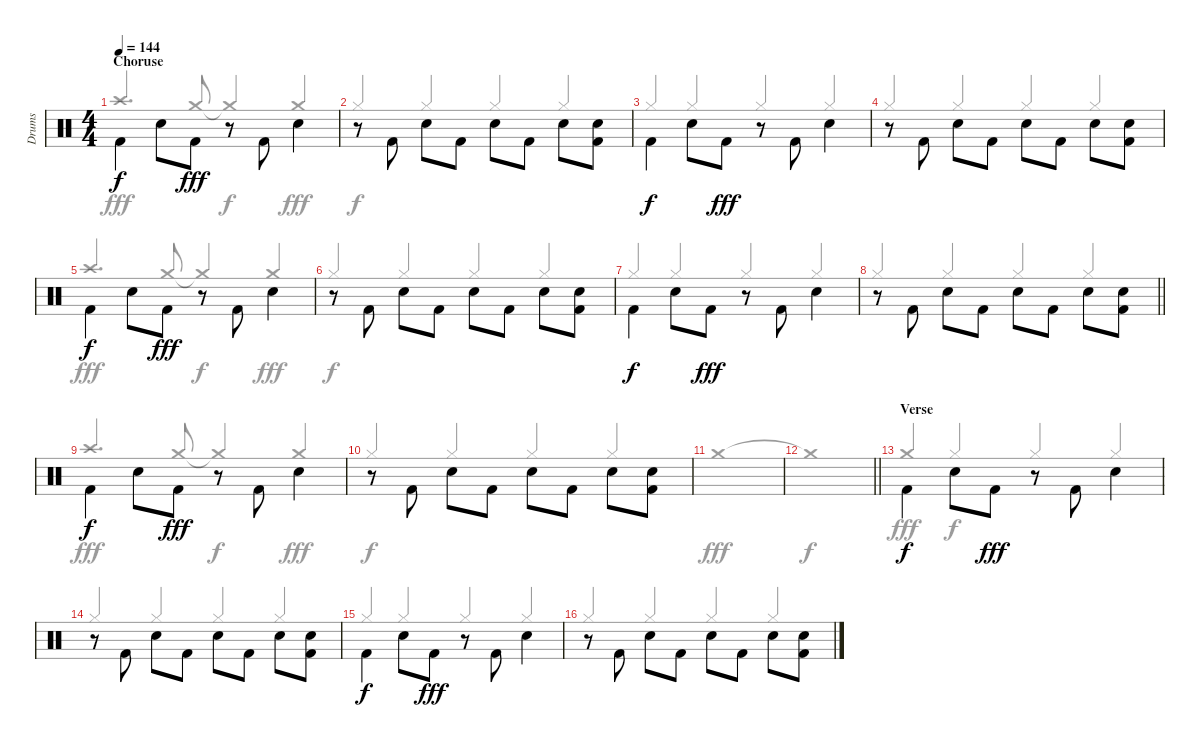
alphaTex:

\track ("Drums" "Drums") {instrument percussion}
\staff {score}
\articulation defaults
\voice
\ts (4 4)
\section ("" "Choruse")
\tempo 144
\clef neutral
\ks c "Kick (hit) 2".4{dy f beam Down} "Snare (hit) 2".8{beam Down} "Kick (hit) 2".8{dy fff beam Down}
r.8 "Kick (hit) 2".8{beam Down} "Snare (hit) 2".4{beam Down} |
r.8 "Kick (hit) 2".8{beam Down} "Snare (hit) 2".8{beam Down} "Kick (hit) 2".8{beam Down} "Snare (hit) 2".8{beam Down} "Kick (hit) 2".8{beam Down} "Snare (hit) 2".8{beam Down} ("Snare (hit) 2" "Kick (hit) 2").8{beam Down} |
"Kick (hit) 2".4{dy f beam Down} "Snare (hit) 2".8{beam Down} "Kick (hit) 2".8{dy fff beam Down} r.8 "Kick (hit) 2".8{beam Down} "Snare (hit) 2".4{beam Down} |
r.8 "Kick (hit) 2".8{beam Down} "Snare (hit) 2".8{beam Down} "Kick (hit) 2".8{beam Down} "Snare (hit) 2".8{beam Down} "Kick (hit) 2".8{beam Down} "Snare (hit) 2".8{beam Down} ("Snare (hit) 2" "Kick (hit) 2").8{beam Down} |
"Kick (hit) 2".4{dy f beam Down} "Snare (hit) 2".8{beam Down} "Kick (hit) 2".8{dy fff beam Down} r.8 "Kick (hit) 2".8{beam Down} "Snare (hit) 2".4{beam Down} |
r.8 "Kick (hit) 2".8{beam Down} "Snare (hit) 2".8{beam Down} "Kick (hit) 2".8{beam Down} "Snare (hit) 2".8{beam Down} "Kick (hit) 2".8{beam Down} "Snare (hit) 2".8{beam Down} ("Snare (hit) 2" "Kick (hit) 2").8{beam Down} |
"Kick (hit) 2".4{dy f beam Down} "Snare (hit) 2".8{beam Down} "Kick (hit) 2".8{dy fff beam Down} r.8 "Kick (hit) 2".8{beam Down} "Snare (hit) 2".4{beam Down} |
\barLineRight lightlight
r.8 "Kick (hit) 2".8{beam Down} "Snare (hit) 2".8{beam Down} "Kick (hit) 2".8{beam Down} "Snare (hit) 2".8{beam Down} "Kick (hit) 2".8{beam Down} "Snare (hit) 2".8{beam Down} ("Snare (hit) 2" "Kick (hit) 2").8{beam Down} |
"Kick (hit) 2".4{dy f beam Down} "Snare (hit) 2".8{beam Down} "Kick (hit) 2".8{dy fff beam Down} r.8 "Kick (hit) 2".8{beam Down} "Snare (hit) 2".4{beam Down} |
r.8 "Kick (hit) 2".8{beam Down} "Snare (hit) 2".8{beam Down} "Kick (hit) 2".8{beam Down} "Snare (hit) 2".8{beam Down} "Kick (hit) 2".8{beam Down} "Snare (hit) 2".8{beam Down} ("Snare (hit) 2" "Kick (hit) 2").8{beam Down} |
|
\barLineRight lightlight
|
\section ("" "Verse")
"Kick (hit) 2".4{dy f beam Down} "Snare (hit) 2".8{beam Down} "Kick (hit) 2".8{dy fff beam Down} r.8 "Kick (hit) 2".8{beam Down} "Snare (hit) 2".4{beam Down} |
r.8 "Kick (hit) 2".8{beam Down} "Snare (hit) 2".8{beam Down} "Kick (hit) 2".8{beam Down} "Snare (hit) 2".8{beam Down} "Kick (hit) 2".8{beam Down} "Snare (hit) 2".8{beam Down} ("Snare (hit) 2" "Kick (hit) 2").8{beam Down} |
"Kick (hit) 2".4{dy f beam Down} "Snare (hit) 2".8{beam Down} "Kick (hit) 2".8{dy fff beam Down} r.8 "Kick (hit) 2".8{beam Down} "Snare (hit) 2".4{beam Down} |
r.8 "Kick (hit) 2".8{beam Down} "Snare (hit) 2".8{beam Down} "Kick (hit) 2".8{beam Down} "Snare (hit) 2".8{beam Down} "Kick (hit) 2".8{beam Down} "Snare (hit) 2".8{beam Down} ("Snare (hit) 2" "Kick (hit) 2").8{beam Down}
\voice
\clef neutral
\ottava regular
\simile none
\ks c "Crash high (hit)".4{d dy fff beam Up} "Crash medium (hit)".8{beam Up} "Crash medium (hit)"{t}.4{dy f beam Up} "Crash medium (hit)".4{dy fff beam Up}
|
"Hi-Hat (closed)".4{dy f beam Up} "Hi-Hat (closed)".4{beam Up} "Hi-Hat (closed)".4{beam Up} "Hi-Hat (closed)".4{beam Up} |
"Hi-Hat (closed)".4{beam Up} "Hi-Hat (closed)".4{beam Up} "Hi-Hat (closed)".4{beam Up} "Hi-Hat (closed)".4{beam Up} |
"Hi-Hat (closed)".4{beam Up} "Hi-Hat (closed)".4{beam Up} "Hi-Hat (closed)".4{beam Up} "Hi-Hat (closed)".4{beam Up} |
"Crash high (hit)".4{d dy fff beam Up} "Crash medium (hit)".8{beam Up} "Crash medium (hit)"{t}.4{dy f beam Up} "Crash medium (hit)".4{dy fff beam Up} |
"Hi-Hat (closed)".4{dy f beam Up} "Hi-Hat (closed)".4{beam Up} "Hi-Hat (closed)".4{beam Up} "Hi-Hat (closed)".4{beam Up} |
"Hi-Hat (closed)".4{beam Up} "Hi-Hat (closed)".4{beam Up} "Hi-Hat (closed)".4{beam Up} "Hi-Hat (closed)".4{beam Up} |
\barLineRight lightlight "Hi-Hat (closed)".4{beam Up} "Hi-Hat (closed)".4{beam Up} "Hi-Hat (closed)".4{beam Up} "Hi-Hat (closed)".4{beam Up}
|
"Crash high (hit)".4{d dy fff beam Up} "Crash medium (hit)".8{beam Up} "Crash medium (hit)"{t}.4{dy f beam Up} "Crash medium (hit)".4{dy fff beam Up} |
"Hi-Hat (closed)".4{dy f beam Up} "Hi-Hat (closed)".4{beam Up} "Hi-Hat (closed)".4{beam Up} "Hi-Hat (closed)".4{beam Up} |
"Crash medium (hit)".1{dy fff} |
\barLineRight lightlight "Crash medium (hit)"{t}.1{dy f}
|
"Crash medium (hit)".4{dy fff beam Up} "Hi-Hat (closed)".4{dy f beam Up} "Hi-Hat (closed)".4{beam Up} "Hi-Hat (closed)".4{beam Up} |
"Hi-Hat (closed)".4{beam Up} "Hi-Hat (closed)".4{beam Up} "Hi-Hat (closed)".4{beam Up} "Hi-Hat (closed)".4{beam Up} |
"Hi-Hat (closed)".4{beam Up} "Hi-Hat (closed)".4{beam Up} "Hi-Hat (closed)".4{beam Up} "Hi-Hat (closed)".4{beam Up} |
"Hi-Hat (closed)".4{beam Up} "Hi-Hat (closed)".4{beam Up} "Hi-Hat (closed)".4{beam Up} "Hi-Hat (closed)".4{beam Up}
